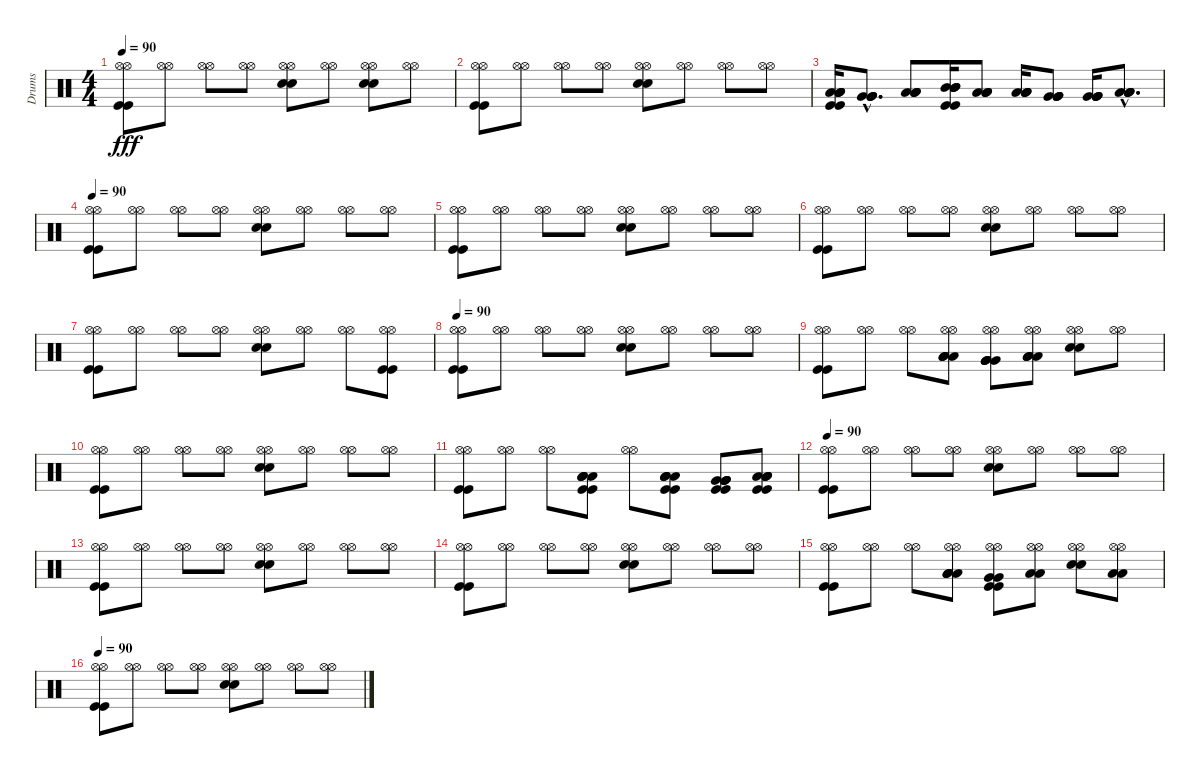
\track ("Drums" "Drums") {instrument percussion}
\staff {score}
\articulation defaults
\ts (4 4)
\tempo 90
\clef neutral
\ks c
("Kick (hit)" "Hi-Hat (open)" "Hi-Hat (open)" "Kick (hit)").8{dy fff} ("Hi-Hat (open)" "Hi-Hat (open)").8 ("Hi-Hat (open)" "Hi-Hat (open)").8 ("Hi-Hat (open)" "Hi-Hat (open)").8 ("Electric Snare (hit)" "Hi-Hat (open)" "Hi-Hat (open)" "Electric Snare (hit)").8 ("Hi-Hat (open)" "Hi-Hat (open)").8 ("Electric Snare (hit)" "Hi-Hat (open)" "Hi-Hat (open)" "Electric Snare (hit)").8 ("Hi-Hat (open)" "Hi-Hat (open)").8 |
("Kick (hit)" "Hi-Hat (open)" "Hi-Hat (open)" "Kick (hit)").8 ("Hi-Hat (open)" "Hi-Hat (open)").8 ("Hi-Hat (open)" "Hi-Hat (open)").8 ("Hi-Hat (open)" "Hi-Hat (open)").8 ("Electric Snare (hit)" "Hi-Hat (open)" "Hi-Hat (open)" "Electric Snare (hit)").8 ("Hi-Hat (open)" "Hi-Hat (open)").8 ("Hi-Hat (open)" "Hi-Hat (open)").8 ("Hi-Hat (open)" "Hi-Hat (open)").8 |
("Kick (hit)" "Low Tom (hit)" "Low Tom (hit)" "Low Tom (hit)" "Low Tom (hit)" "Kick (hit)").16 ("Very Low Tom (hit)"{hac} "Very Low Tom (hit)"{hac} "Very Low Tom (hit)"{hac} "Very Low Tom (hit)"{hac}).8{d} ("Low Floor Tom (hit)" "Low Floor Tom (hit)" "Low Floor Tom (hit)" "Low Floor Tom (hit)").8 ("Kick (hit)" "Mid Tom (hit)" "Mid Tom (hit)" "Mid Tom (hit)" "Mid Tom (hit)" "Kick (hit)").16 ("Low Tom (hit)" "Low Tom (hit)" "Low Tom (hit)" "Low Tom (hit)").8 ("Low Tom (hit)" "Low Tom (hit)" "Low Tom (hit)" "Low Tom (hit)").16 ("Very Low Tom (hit)" "Very Low Tom (hit)" "Very Low Tom (hit)" "Very Low Tom (hit)").8 ("Very Low Tom (hit)" "Very Low Tom (hit)" "Very Low Tom (hit)" "Very Low Tom (hit)").16 ("Low Floor Tom (hit)"{hac} "Low Floor Tom (hit)"{hac} "Low Floor Tom (hit)"{hac} "Low Floor Tom (hit)"{hac}).8{d} |
\tempo 90
("Kick (hit)" "Hi-Hat (open)" "Hi-Hat (open)" "Kick (hit)").8 ("Hi-Hat (open)" "Hi-Hat (open)").8 ("Hi-Hat (open)" "Hi-Hat (open)").8 ("Hi-Hat (open)" "Hi-Hat (open)").8 ("Electric Snare (hit)" "Hi-Hat (open)" "Hi-Hat (open)" "Electric Snare (hit)").8 ("Hi-Hat (open)" "Hi-Hat (open)").8 ("Hi-Hat (open)" "Hi-Hat (open)").8 ("Hi-Hat (open)" "Hi-Hat (open)").8 |
("Kick (hit)" "Hi-Hat (open)" "Hi-Hat (open)" "Kick (hit)").8 ("Hi-Hat (open)" "Hi-Hat (open)").8 ("Hi-Hat (open)" "Hi-Hat (open)").8 ("Hi-Hat (open)" "Hi-Hat (open)").8 ("Electric Snare (hit)" "Hi-Hat (open)" "Hi-Hat (open)" "Electric Snare (hit)").8 ("Hi-Hat (open)" "Hi-Hat (open)").8 ("Hi-Hat (open)" "Hi-Hat (open)").8 ("Hi-Hat (open)" "Hi-Hat (open)").8 |
("Kick (hit)" "Hi-Hat (open)" "Hi-Hat (open)" "Kick (hit)").8 ("Hi-Hat (open)" "Hi-Hat (open)").8 ("Hi-Hat (open)" "Hi-Hat (open)").8 ("Hi-Hat (open)" "Hi-Hat (open)").8 ("Electric Snare (hit)" "Hi-Hat (open)" "Hi-Hat (open)" "Electric Snare (hit)").8 ("Hi-Hat (open)" "Hi-Hat (open)").8 ("Hi-Hat (open)" "Hi-Hat (open)").8 ("Hi-Hat (open)" "Hi-Hat (open)").8 |
("Kick (hit)" "Hi-Hat (open)" "Hi-Hat (open)" "Kick (hit)").8 ("Hi-Hat (open)" "Hi-Hat (open)").8 ("Hi-Hat (open)" "Hi-Hat (open)").8 ("Hi-Hat (open)" "Hi-Hat (open)").8 ("Electric Snare (hit)" "Hi-Hat (open)" "Hi-Hat (open)" "Electric Snare (hit)").8 ("Hi-Hat (open)" "Hi-Hat (open)").8 ("Hi-Hat (open)" "Hi-Hat (open)").8 ("Kick (hit)" "Hi-Hat (open)" "Hi-Hat (open)" "Kick (hit)").8 |
\tempo 90
("Kick (hit)" "Hi-Hat (open)" "Hi-Hat (open)" "Kick (hit)").8 ("Hi-Hat (open)" "Hi-Hat (open)").8 ("Hi-Hat (open)" "Hi-Hat (open)").8 ("Hi-Hat (open)" "Hi-Hat (open)").8 ("Electric Snare (hit)" "Hi-Hat (open)" "Hi-Hat (open)" "Electric Snare (hit)").8 ("Hi-Hat (open)" "Hi-Hat (open)").8 ("Hi-Hat (open)" "Hi-Hat (open)").8 ("Hi-Hat (open)" "Hi-Hat (open)").8 |
("Kick (hit)" "Hi-Hat (open)" "Hi-Hat (open)" "Kick (hit)").8 ("Hi-Hat (open)" "Hi-Hat (open)").8 ("Hi-Hat (open)" "Hi-Hat (open)").8 ("Low Tom (hit)" "Low Tom (hit)" "Hi-Hat (open)" "Hi-Hat (open)" "Low Tom (hit)" "Low Tom (hit)").8 ("Very Low Tom (hit)" "Very Low Tom (hit)" "Hi-Hat (open)" "Hi-Hat (open)" "Very Low Tom (hit)" "Very Low Tom (hit)").8 ("Low Floor Tom (hit)" "Low Floor Tom (hit)" "Hi-Hat (open)" "Hi-Hat (open)" "Low Floor Tom (hit)" "Low Floor Tom (hit)").8 ("Electric Snare (hit)" "Hi-Hat (open)" "Hi-Hat (open)" "Electric Snare (hit)").8 ("Hi-Hat (open)" "Hi-Hat (open)").8 |
("Kick (hit)" "Hi-Hat (open)" "Hi-Hat (open)" "Kick (hit)").8 ("Hi-Hat (open)" "Hi-Hat (open)").8 ("Hi-Hat (open)" "Hi-Hat (open)").8 ("Hi-Hat (open)" "Hi-Hat (open)").8 ("Electric Snare (hit)" "Hi-Hat (open)" "Hi-Hat (open)" "Electric Snare (hit)").8 ("Hi-Hat (open)" "Hi-Hat (open)").8 ("Hi-Hat (open)" "Hi-Hat (open)").8 ("Hi-Hat (open)" "Hi-Hat (open)").8 |
("Kick (hit)" "Hi-Hat (open)" "Hi-Hat (open)" "Kick (hit)").8 ("Hi-Hat (open)" "Hi-Hat (open)").8 ("Hi-Hat (open)" "Hi-Hat (open)").8 ("Kick (hit)" "Low Tom (hit)" "Low Tom (hit)" "Low Tom (hit)" "Low Tom (hit)" "Kick (hit)").8 ("Hi-Hat (open)" "Hi-Hat (open)").8 ("Kick (hit)" "Low Tom (hit)" "Low Tom (hit)" "Low Tom (hit)" "Low Tom (hit)" "Kick (hit)").8 ("Kick (hit)" "Very Low Tom (hit)" "Very Low Tom (hit)" "Very Low Tom (hit)" "Very Low Tom (hit)" "Kick (hit)").8 ("Kick (hit)" "Low Floor Tom (hit)" "Low Floor Tom (hit)" "Low Floor Tom (hit)" "Low Floor Tom (hit)" "Kick (hit)").8 |
\tempo 90
("Kick (hit)" "Hi-Hat (open)" "Hi-Hat (open)" "Kick (hit)").8 ("Hi-Hat (open)" "Hi-Hat (open)").8 ("Hi-Hat (open)" "Hi-Hat (open)").8 ("Hi-Hat (open)" "Hi-Hat (open)").8 ("Electric Snare (hit)" "Hi-Hat (open)" "Hi-Hat (open)" "Electric Snare (hit)").8 ("Hi-Hat (open)" "Hi-Hat (open)").8 ("Hi-Hat (open)" "Hi-Hat (open)").8 ("Hi-Hat (open)" "Hi-Hat (open)").8 |
("Kick (hit)" "Hi-Hat (open)" "Hi-Hat (open)" "Kick (hit)").8 ("Hi-Hat (open)" "Hi-Hat (open)").8 ("Hi-Hat (open)" "Hi-Hat (open)").8 ("Hi-Hat (open)" "Hi-Hat (open)").8 ("Electric Snare (hit)" "Hi-Hat (open)" "Hi-Hat (open)" "Electric Snare (hit)").8 ("Hi-Hat (open)" "Hi-Hat (open)").8 ("Hi-Hat (open)" "Hi-Hat (open)").8 ("Hi-Hat (open)" "Hi-Hat (open)").8 |
("Kick (hit)" "Hi-Hat (open)" "Hi-Hat (open)" "Kick (hit)").8 ("Hi-Hat (open)" "Hi-Hat (open)").8 ("Hi-Hat (open)" "Hi-Hat (open)").8 ("Hi-Hat (open)" "Hi-Hat (open)").8 ("Electric Snare (hit)" "Hi-Hat (open)" "Hi-Hat (open)" "Electric Snare (hit)").8 ("Hi-Hat (open)" "Hi-Hat (open)").8 ("Hi-Hat (open)" "Hi-Hat (open)").8 ("Hi-Hat (open)" "Hi-Hat (open)").8 |
("Kick (hit)" "Hi-Hat (open)" "Hi-Hat (open)" "Kick (hit)").8 ("Hi-Hat (open)" "Hi-Hat (open)").8 ("Hi-Hat (open)" "Hi-Hat (open)").8 ("Low Tom (hit)" "Low Tom (hit)" "Hi-Hat (open)" "Hi-Hat (open)" "Low Tom (hit)" "Low Tom (hit)").8 ("Kick (hit)" "Very Low Tom (hit)" "Hi-Hat (open)" "Hi-Hat (open)" "Very Low Tom (hit)" "Kick (hit)").8 ("Low Floor Tom (hit)" "Hi-Hat (open)" "Hi-Hat (open)" "Low Floor Tom (hit)").8 ("Electric Snare (hit)" "Hi-Hat (open)" "Hi-Hat (open)" "Electric Snare (hit)").8 ("Low Floor Tom (hit)" "Hi-Hat (open)" "Hi-Hat (open)" "Low Floor Tom (hit)").8 |
\tempo 90
("Kick (hit)" "Hi-Hat (open)" "Hi-Hat (open)" "Kick (hit)").8 ("Hi-Hat (open)" "Hi-Hat (open)").8 ("Hi-Hat (open)" "Hi-Hat (open)").8 ("Hi-Hat (open)" "Hi-Hat (open)").8 ("Electric Snare (hit)" "Hi-Hat (open)" "Hi-Hat (open)" "Electric Snare (hit)").8 ("Hi-Hat (open)" "Hi-Hat (open)").8 ("Hi-Hat (open)" "Hi-Hat (open)").8 ("Hi-Hat (open)" "Hi-Hat (open)").8
